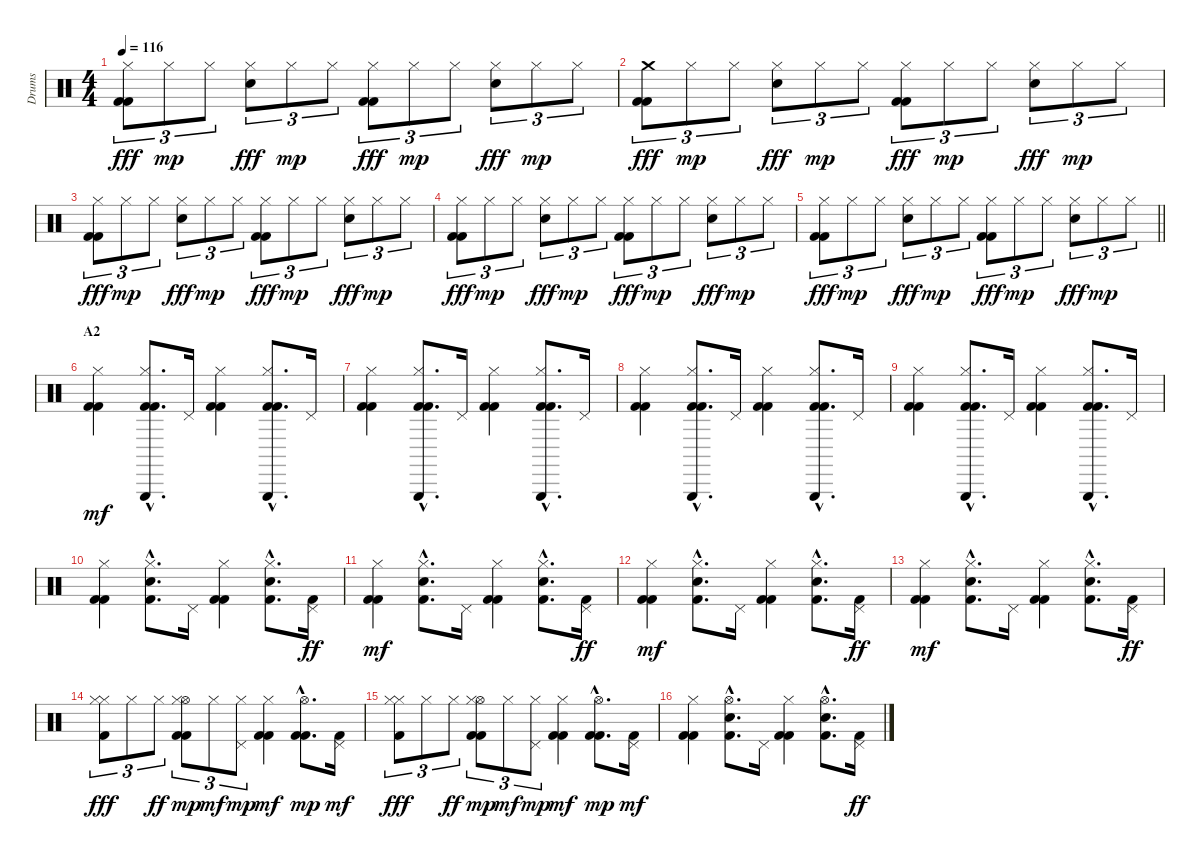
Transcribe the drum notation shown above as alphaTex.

\track ("Drums" "Drums") {instrument percussion}
\staff {score}
\articulation defaults
\ts (4 4)
\tempo 116
\clef neutral
\ks aminor
("Hi-Hat (closed)" "Kick (hit) 2" "Kick (hit) 2").8{tu (3 2) dy fff} "Hi-Hat (closed)".8{tu (3 2) dy mp} "Hi-Hat (closed)".8{tu (3 2)} ("Hi-Hat (closed)" "Snare (hit) 2").8{tu (3 2) dy fff} "Hi-Hat (closed)".8{tu (3 2) dy mp} "Hi-Hat (closed)".8{tu (3 2)} ("Hi-Hat (closed)" "Kick (hit) 2" "Kick (hit) 2").8{tu (3 2) dy fff} "Hi-Hat (closed)".8{tu (3 2) dy mp} "Hi-Hat (closed)".8{tu (3 2)} ("Hi-Hat (closed)" "Snare (hit) 2").8{tu (3 2) dy fff} "Hi-Hat (closed)".8{tu (3 2) dy mp} "Hi-Hat (closed)".8{tu (3 2)} |
("Crash medium (hit)" "Kick (hit) 2" "Kick (hit) 2").8{tu (3 2) dy fff} "Hi-Hat (closed)".8{tu (3 2) dy mp} "Hi-Hat (closed)".8{tu (3 2)} ("Hi-Hat (closed)" "Snare (hit) 2").8{tu (3 2) dy fff} "Hi-Hat (closed)".8{tu (3 2) dy mp} "Hi-Hat (closed)".8{tu (3 2)} ("Hi-Hat (closed)" "Kick (hit) 2" "Kick (hit) 2").8{tu (3 2) dy fff} "Hi-Hat (closed)".8{tu (3 2) dy mp} "Hi-Hat (closed)".8{tu (3 2)} ("Hi-Hat (closed)" "Snare (hit) 2").8{tu (3 2) dy fff} "Hi-Hat (closed)".8{tu (3 2) dy mp} "Hi-Hat (closed)".8{tu (3 2)} |
("Hi-Hat (closed)" "Kick (hit) 2" "Kick (hit) 2").8{tu (3 2) dy fff} "Hi-Hat (closed)".8{tu (3 2) dy mp} "Hi-Hat (closed)".8{tu (3 2)} ("Hi-Hat (closed)" "Snare (hit) 2").8{tu (3 2) dy fff} "Hi-Hat (closed)".8{tu (3 2) dy mp} "Hi-Hat (closed)".8{tu (3 2)} ("Hi-Hat (closed)" "Kick (hit) 2" "Kick (hit) 2").8{tu (3 2) dy fff} "Hi-Hat (closed)".8{tu (3 2) dy mp} "Hi-Hat (closed)".8{tu (3 2)} ("Hi-Hat (closed)" "Snare (hit) 2").8{tu (3 2) dy fff} "Hi-Hat (closed)".8{tu (3 2) dy mp} "Hi-Hat (closed)".8{tu (3 2)} |
("Hi-Hat (closed)" "Kick (hit) 2" "Kick (hit) 2").8{tu (3 2) dy fff} "Hi-Hat (closed)".8{tu (3 2) dy mp} "Hi-Hat (closed)".8{tu (3 2)} ("Hi-Hat (closed)" "Snare (hit) 2").8{tu (3 2) dy fff} "Hi-Hat (closed)".8{tu (3 2) dy mp} "Hi-Hat (closed)".8{tu (3 2)} ("Hi-Hat (closed)" "Kick (hit) 2" "Kick (hit) 2").8{tu (3 2) dy fff} "Hi-Hat (closed)".8{tu (3 2) dy mp} "Hi-Hat (closed)".8{tu (3 2)} ("Hi-Hat (closed)" "Snare (hit) 2").8{tu (3 2) dy fff} "Hi-Hat (closed)".8{tu (3 2) dy mp} "Hi-Hat (closed)".8{tu (3 2)} |
\barLineRight lightlight
("Hi-Hat (closed)" "Kick (hit) 2" "Kick (hit) 2").8{tu (3 2) dy fff} "Hi-Hat (closed)".8{tu (3 2) dy mp} "Hi-Hat (closed)".8{tu (3 2)} ("Hi-Hat (closed)" "Snare (hit) 2").8{tu (3 2) dy fff} "Hi-Hat (closed)".8{tu (3 2) dy mp} "Hi-Hat (closed)".8{tu (3 2)} ("Hi-Hat (closed)" "Kick (hit) 2" "Kick (hit) 2").8{tu (3 2) dy fff} "Hi-Hat (closed)".8{tu (3 2) dy mp} "Hi-Hat (closed)".8{tu (3 2)} ("Hi-Hat (closed)" "Snare (hit) 2").8{tu (3 2) dy fff} "Hi-Hat (closed)".8{tu (3 2) dy mp} "Hi-Hat (closed)".8{tu (3 2)} |
\section ("" "A2")
("Hi-Hat (closed)" "Kick (hit) 2" "Kick (hit) 2").4{dy mf} ("Hi-Hat (closed)"{hac} "Triangle (hit)"{hac} "Kick (hit) 2"{hac} "Kick (hit) 2"{hac}).8{d} "Pedal Hi-Hat (hit)".16 ("Hi-Hat (closed)" "Kick (hit) 2" "Kick (hit) 2").4 ("Hi-Hat (closed)"{hac} "Triangle (hit)"{hac} "Kick (hit) 2"{hac} "Kick (hit) 2"{hac}).8{d} "Pedal Hi-Hat (hit)".16 |
("Hi-Hat (closed)" "Kick (hit) 2" "Kick (hit) 2").4 ("Hi-Hat (closed)"{hac} "Triangle (hit)"{hac} "Kick (hit) 2"{hac} "Kick (hit) 2"{hac}).8{d} "Pedal Hi-Hat (hit)".16 ("Hi-Hat (closed)" "Kick (hit) 2" "Kick (hit) 2").4 ("Hi-Hat (closed)"{hac} "Triangle (hit)"{hac} "Kick (hit) 2"{hac} "Kick (hit) 2"{hac}).8{d} "Pedal Hi-Hat (hit)".16 |
("Hi-Hat (closed)" "Kick (hit) 2" "Kick (hit) 2").4 ("Hi-Hat (closed)"{hac} "Triangle (hit)"{hac} "Kick (hit) 2"{hac} "Kick (hit) 2"{hac}).8{d} "Pedal Hi-Hat (hit)".16 ("Hi-Hat (closed)" "Kick (hit) 2" "Kick (hit) 2").4 ("Hi-Hat (closed)"{hac} "Triangle (hit)"{hac} "Kick (hit) 2"{hac} "Kick (hit) 2"{hac}).8{d} "Pedal Hi-Hat (hit)".16 |
("Hi-Hat (closed)" "Kick (hit) 2" "Kick (hit) 2").4 ("Hi-Hat (closed)"{hac} "Triangle (hit)"{hac} "Kick (hit) 2"{hac} "Kick (hit) 2"{hac}).8{d} "Pedal Hi-Hat (hit)".16 ("Hi-Hat (closed)" "Kick (hit) 2" "Kick (hit) 2").4 ("Hi-Hat (closed)"{hac} "Triangle (hit)"{hac} "Kick (hit) 2"{hac} "Kick (hit) 2"{hac}).8{d} "Pedal Hi-Hat (hit)".16 |
("Hi-Hat (closed)" "Kick (hit) 2" "Kick (hit) 2").4 ("Hi-Hat (closed)"{hac} "Electric Snare (hit)"{hac} "Kick (hit) 2"{hac}).8{d} "Pedal Hi-Hat (hit)".16 ("Hi-Hat (closed)" "Kick (hit) 2" "Kick (hit) 2").4 ("Hi-Hat (closed)"{hac} "Electric Snare (hit)"{hac} "Kick (hit) 2"{hac}).8{d} ("Pedal Hi-Hat (hit)" "Kick (hit) 2").16{dy ff} |
("Hi-Hat (closed)" "Kick (hit) 2" "Kick (hit) 2").4{dy mf} ("Hi-Hat (closed)"{hac} "Electric Snare (hit)"{hac} "Kick (hit) 2"{hac}).8{d} "Pedal Hi-Hat (hit)".16 ("Hi-Hat (closed)" "Kick (hit) 2" "Kick (hit) 2").4 ("Hi-Hat (closed)"{hac} "Electric Snare (hit)"{hac} "Kick (hit) 2"{hac}).8{d} ("Pedal Hi-Hat (hit)" "Kick (hit) 2").16{dy ff} |
("Hi-Hat (closed)" "Kick (hit) 2" "Kick (hit) 2").4{dy mf} ("Hi-Hat (closed)"{hac} "Electric Snare (hit)"{hac} "Kick (hit) 2"{hac}).8{d} "Pedal Hi-Hat (hit)".16 ("Hi-Hat (closed)" "Kick (hit) 2" "Kick (hit) 2").4 ("Hi-Hat (closed)"{hac} "Electric Snare (hit)"{hac} "Kick (hit) 2"{hac}).8{d} ("Pedal Hi-Hat (hit)" "Kick (hit) 2").16{dy ff} |
("Hi-Hat (closed)" "Kick (hit) 2" "Kick (hit) 2").4{dy mf} ("Hi-Hat (closed)"{hac} "Electric Snare (hit)"{hac} "Kick (hit) 2"{hac}).8{d} "Pedal Hi-Hat (hit)".16 ("Hi-Hat (closed)" "Kick (hit) 2" "Kick (hit) 2").4 ("Hi-Hat (closed)"{hac} "Electric Snare (hit)"{hac} "Kick (hit) 2"{hac}).8{d} ("Pedal Hi-Hat (hit)" "Kick (hit) 2").16{dy ff} |
("Hi-Hat (closed)" "Hi-Hat (closed)" "Kick (hit) 2").8{tu (3 2) dy fff} "Hi-Hat (closed)".8{tu (3 2)} "Hi-Hat (closed)".8{tu (3 2) dy ff} ("Hi-Hat (open)" "Hi-Hat (closed)" "Kick (hit) 2" "Kick (hit) 2").8{tu (3 2) dy mp} "Hi-Hat (closed)".8{tu (3 2) dy mf} ("Pedal Hi-Hat (hit)" "Hi-Hat (closed)").8{tu (3 2) dy mp} ("Hi-Hat (closed)" "Kick (hit) 2" "Kick (hit) 2").4{dy mf} ("Hi-Hat (open)"{hac} "Kick (hit) 2"{hac} "Kick (hit) 2"{hac}).8{d dy mp} ("Pedal Hi-Hat (hit)" "Kick (hit) 2").16{dy mf} |
("Hi-Hat (closed)" "Hi-Hat (closed)" "Kick (hit) 2").8{tu (3 2) dy fff} "Hi-Hat (closed)".8{tu (3 2)} "Hi-Hat (closed)".8{tu (3 2) dy ff} ("Hi-Hat (open)" "Hi-Hat (closed)" "Kick (hit) 2" "Kick (hit) 2").8{tu (3 2) dy mp} "Hi-Hat (closed)".8{tu (3 2) dy mf} ("Pedal Hi-Hat (hit)" "Hi-Hat (closed)").8{tu (3 2) dy mp} ("Hi-Hat (closed)" "Kick (hit) 2" "Kick (hit) 2").4{dy mf} ("Hi-Hat (open)"{hac} "Kick (hit) 2"{hac} "Kick (hit) 2"{hac}).8{d dy mp} ("Pedal Hi-Hat (hit)" "Kick (hit) 2").16{dy mf} |
("Hi-Hat (closed)" "Kick (hit) 2" "Kick (hit) 2").4 ("Hi-Hat (open)"{hac} "Electric Snare (hit)"{hac} "Kick (hit) 2"{hac}).8{d} "Pedal Hi-Hat (hit)".16 ("Hi-Hat (closed)" "Kick (hit) 2" "Kick (hit) 2").4 ("Hi-Hat (open)"{hac} "Electric Snare (hit)"{hac} "Kick (hit) 2"{hac}).8{d} ("Pedal Hi-Hat (hit)" "Kick (hit) 2").16{dy ff}
